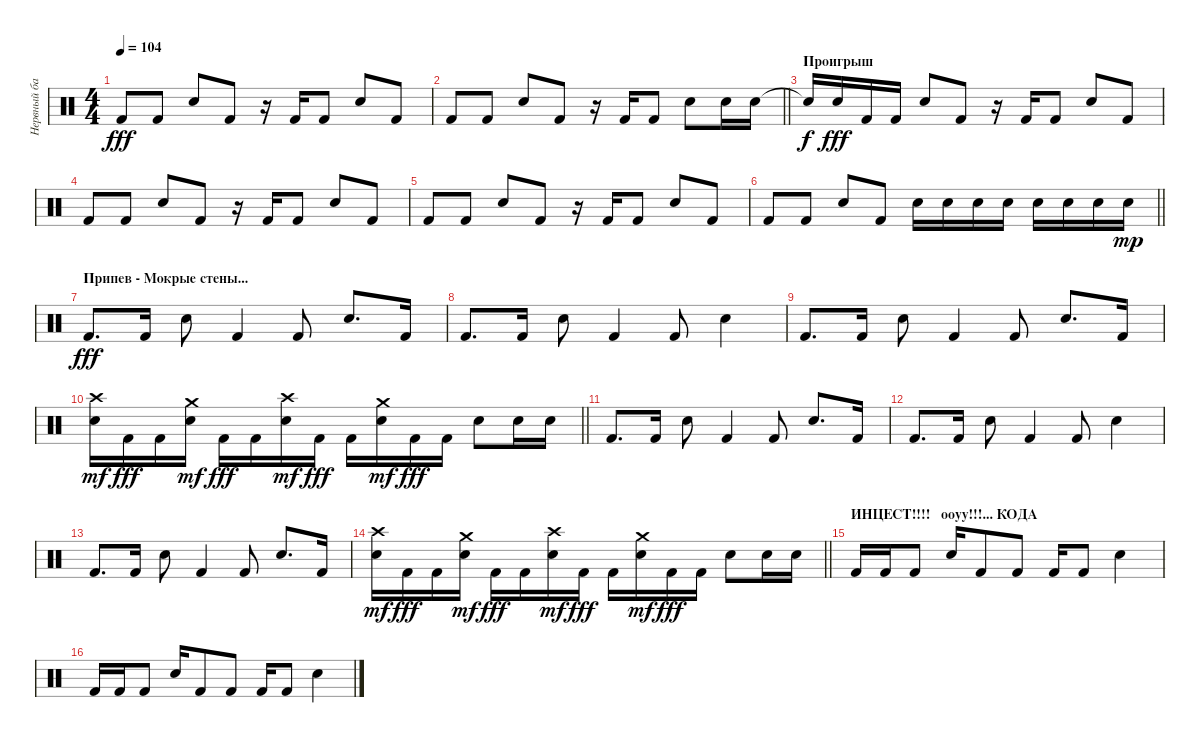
\track ("Нервный барабанщик" "Нервный ба") {instrument percussion}
\staff {score}
\articulation defaults
\ts (4 4)
\tempo 104
\clef neutral
\ks c "Kick (hit) 2".8{dy fff} "Kick (hit) 2".8 "Snare (hit) 2".8 "Kick (hit) 2".8
r.16 "Kick (hit) 2".16 "Kick (hit) 2".8 "Snare (hit) 2".8 "Kick (hit) 2".8 |
\barLineRight lightlight "Kick (hit) 2".8 "Kick (hit) 2".8 "Snare (hit) 2".8 "Kick (hit) 2".8
r.16 "Kick (hit) 2".16 "Kick (hit) 2".8 "Snare (hit) 2".8 "Snare (hit) 2".16 "Snare (hit) 2".16 |
\section ("" "Проигрыш")
"Snare (hit) 2"{t}.16{dy f} "Snare (hit) 2".16{dy fff} "Kick (hit) 2".16 "Kick (hit) 2".16 "Snare (hit) 2".8 "Kick (hit) 2".8 r.16 "Kick (hit) 2".16 "Kick (hit) 2".8 "Snare (hit) 2".8 "Kick (hit) 2".8 |
"Kick (hit) 2".8 "Kick (hit) 2".8 "Snare (hit) 2".8 "Kick (hit) 2".8 r.16 "Kick (hit) 2".16 "Kick (hit) 2".8 "Snare (hit) 2".8 "Kick (hit) 2".8 |
"Kick (hit) 2".8 "Kick (hit) 2".8 "Snare (hit) 2".8 "Kick (hit) 2".8 r.16 "Kick (hit) 2".16 "Kick (hit) 2".8 "Snare (hit) 2".8 "Kick (hit) 2".8 |
\barLineRight lightlight "Kick (hit) 2".8 "Kick (hit) 2".8 "Snare (hit) 2".8 "Kick (hit) 2".8 "Snare (hit) 2".16 "Snare (hit) 2".16 "Snare (hit) 2".16 "Snare (hit) 2".16 "Snare (hit) 2".16 "Snare (hit) 2".16 "Snare (hit) 2".16 "Snare (hit) 2".16{dy mp}
|
\section ("" "Припев - Мокрые стены...")
"Kick (hit) 2".8{d dy fff} "Kick (hit) 2".16 "Snare (hit) 2".8 "Kick (hit) 2".4 "Kick (hit) 2".8 "Snare (hit) 2".8{d} "Kick (hit) 2".16 |
"Kick (hit) 2".8{d} "Kick (hit) 2".16 "Snare (hit) 2".8 "Kick (hit) 2".4 "Kick (hit) 2".8 "Snare (hit) 2".4 |
"Kick (hit) 2".8{d} "Kick (hit) 2".16 "Snare (hit) 2".8 "Kick (hit) 2".4 "Kick (hit) 2".8 "Snare (hit) 2".8{d} "Kick (hit) 2".16 |
\barLineRight lightlight
("Snare (hit) 2" "Crash high (hit)").16{dy mf} "Kick (hit) 2".16{dy fff} "Kick (hit) 2".16 ("Snare (hit) 2" "Crash medium (hit)").16{dy mf} "Kick (hit) 2".16{dy fff} "Kick (hit) 2".16 ("Snare (hit) 2" "Crash high (hit)").16{dy mf} "Kick (hit) 2".16{dy fff} "Kick (hit) 2".16 ("Snare (hit) 2" "Crash medium (hit)").16{dy mf} "Kick (hit) 2".16{dy fff} "Kick (hit) 2".16 "Snare (hit) 2".8 "Snare (hit) 2".16 "Snare (hit) 2".16 |
"Kick (hit) 2".8{d} "Kick (hit) 2".16 "Snare (hit) 2".8 "Kick (hit) 2".4 "Kick (hit) 2".8 "Snare (hit) 2".8{d} "Kick (hit) 2".16 |
"Kick (hit) 2".8{d} "Kick (hit) 2".16 "Snare (hit) 2".8 "Kick (hit) 2".4 "Kick (hit) 2".8 "Snare (hit) 2".4 |
"Kick (hit) 2".8{d} "Kick (hit) 2".16 "Snare (hit) 2".8 "Kick (hit) 2".4 "Kick (hit) 2".8 "Snare (hit) 2".8{d} "Kick (hit) 2".16 |
\barLineRight lightlight
("Snare (hit) 2" "Crash high (hit)").16{dy mf} "Kick (hit) 2".16{dy fff} "Kick (hit) 2".16 ("Snare (hit) 2" "Crash medium (hit)").16{dy mf} "Kick (hit) 2".16{dy fff} "Kick (hit) 2".16 ("Snare (hit) 2" "Crash high (hit)").16{dy mf} "Kick (hit) 2".16{dy fff} "Kick (hit) 2".16 ("Snare (hit) 2" "Crash medium (hit)").16{dy mf} "Kick (hit) 2".16{dy fff} "Kick (hit) 2".16 "Snare (hit) 2".8 "Snare (hit) 2".16 "Snare (hit) 2".16 |
\section ("" "ИНЦЕСТ!!!!   ооуу!!!... КОДА")
"Kick (hit) 2".16 "Kick (hit) 2".16 "Kick (hit) 2".8 "Snare (hit) 2".16 "Kick (hit) 2".8 "Kick (hit) 2".8 "Kick (hit) 2".16 "Kick (hit) 2".8 "Snare (hit) 2".4 |
"Kick (hit) 2".16 "Kick (hit) 2".16 "Kick (hit) 2".8 "Snare (hit) 2".16 "Kick (hit) 2".8 "Kick (hit) 2".8 "Kick (hit) 2".16 "Kick (hit) 2".8 "Snare (hit) 2".4
